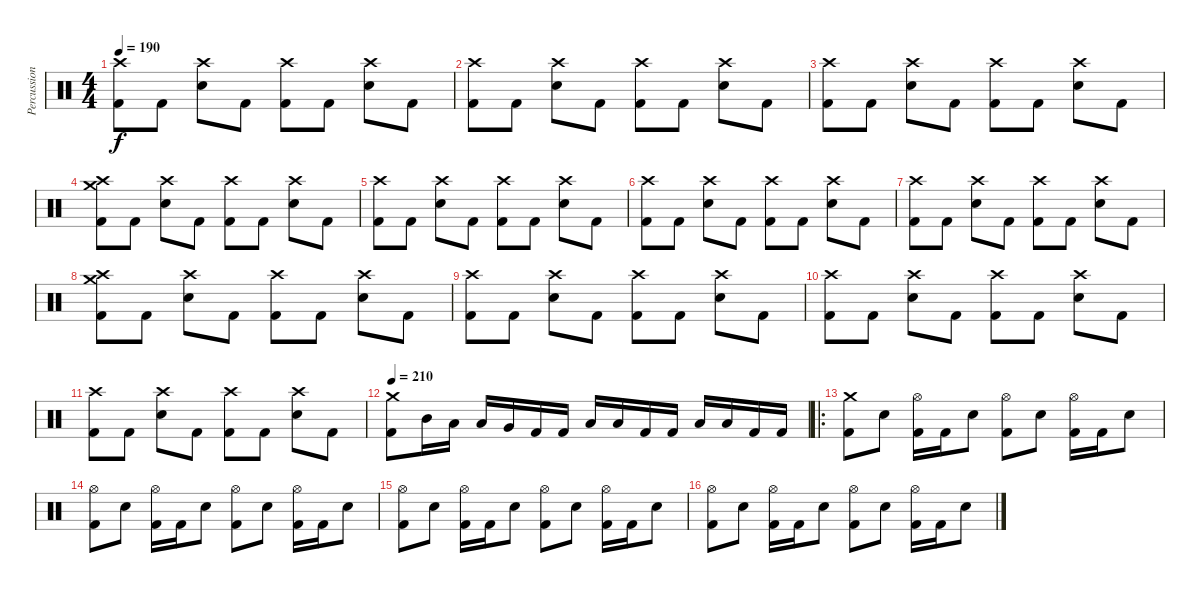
\track ("Percussion" "Percussion") {instrument percussion}
\staff {score}
\articulation defaults
\ts (4 4)
\tempo 190
\clef neutral
\ks c
("Crash high (hit)" "Kick (hit) 2").8{dy f} "Kick (hit) 2".8 ("Crash high (hit)" "Electric Snare (hit)").8 "Kick (hit) 2".8 ("Crash high (hit)" "Kick (hit) 2").8 "Kick (hit) 2".8 ("Crash high (hit)" "Electric Snare (hit)").8 "Kick (hit) 2".8 |
("Crash high (hit)" "Kick (hit) 2").8 "Kick (hit) 2".8 ("Crash high (hit)" "Electric Snare (hit)").8 "Kick (hit) 2".8 ("Crash high (hit)" "Kick (hit) 2").8 "Kick (hit) 2".8 ("Crash high (hit)" "Electric Snare (hit)").8 "Kick (hit) 2".8 |
("Crash high (hit)" "Kick (hit) 2").8 "Kick (hit) 2".8 ("Crash high (hit)" "Electric Snare (hit)").8 "Kick (hit) 2".8 ("Crash high (hit)" "Kick (hit) 2").8 "Kick (hit) 2".8 ("Crash high (hit)" "Electric Snare (hit)").8 "Kick (hit) 2".8 |
("Crash high (hit)" "Crash medium (hit)" "Kick (hit) 2").8 "Kick (hit) 2".8 ("Crash high (hit)" "Electric Snare (hit)").8 "Kick (hit) 2".8 ("Crash high (hit)" "Kick (hit) 2").8 "Kick (hit) 2".8 ("Crash high (hit)" "Electric Snare (hit)").8 "Kick (hit) 2".8 |
("Crash high (hit)" "Kick (hit) 2").8 "Kick (hit) 2".8 ("Crash high (hit)" "Electric Snare (hit)").8 "Kick (hit) 2".8 ("Crash high (hit)" "Kick (hit) 2").8 "Kick (hit) 2".8 ("Crash high (hit)" "Electric Snare (hit)").8 "Kick (hit) 2".8 |
("Crash high (hit)" "Kick (hit) 2").8 "Kick (hit) 2".8 ("Crash high (hit)" "Electric Snare (hit)").8 "Kick (hit) 2".8 ("Crash high (hit)" "Kick (hit) 2").8 "Kick (hit) 2".8 ("Crash high (hit)" "Electric Snare (hit)").8 "Kick (hit) 2".8 |
("Crash high (hit)" "Kick (hit) 2").8 "Kick (hit) 2".8 ("Crash high (hit)" "Electric Snare (hit)").8 "Kick (hit) 2".8 ("Crash high (hit)" "Kick (hit) 2").8 "Kick (hit) 2".8 ("Crash high (hit)" "Electric Snare (hit)").8 "Kick (hit) 2".8 |
("Crash high (hit)" "Crash medium (hit)" "Kick (hit) 2").8 "Kick (hit) 2".8 ("Crash high (hit)" "Electric Snare (hit)").8 "Kick (hit) 2".8 ("Crash high (hit)" "Kick (hit) 2").8 "Kick (hit) 2".8 ("Crash high (hit)" "Electric Snare (hit)").8 "Kick (hit) 2".8 |
("Crash high (hit)" "Kick (hit) 2").8 "Kick (hit) 2".8 ("Crash high (hit)" "Electric Snare (hit)").8 "Kick (hit) 2".8 ("Crash high (hit)" "Kick (hit) 2").8 "Kick (hit) 2".8 ("Crash high (hit)" "Electric Snare (hit)").8 "Kick (hit) 2".8 |
("Crash high (hit)" "Kick (hit) 2").8 "Kick (hit) 2".8 ("Crash high (hit)" "Electric Snare (hit)").8 "Kick (hit) 2".8 ("Crash high (hit)" "Kick (hit) 2").8 "Kick (hit) 2".8 ("Crash high (hit)" "Electric Snare (hit)").8 "Kick (hit) 2".8 |
("Crash high (hit)" "Kick (hit) 2").8 "Kick (hit) 2".8 ("Crash high (hit)" "Electric Snare (hit)").8 "Kick (hit) 2".8 ("Crash high (hit)" "Kick (hit) 2").8 "Kick (hit) 2".8 ("Crash high (hit)" "Electric Snare (hit)").8 "Kick (hit) 2".8 |
\tempo 210
("Crash medium (hit)" "Kick (hit) 2").8 "Mid Tom (hit)".16 "Low Tom (hit)".16 "Low Floor Tom (hit)".16 "Very Low Tom (hit)".16 "Kick (hit) 2".16 "Kick (hit) 2".16 "Low Tom (hit)".16 "Low Tom (hit)".16 "Kick (hit) 2".16 "Kick (hit) 2".16 "Low Floor Tom (hit)".16 "Low Floor Tom (hit)".16 "Kick (hit) 2".16 "Kick (hit) 2".16 |
\ro
("Crash medium (hit)" "Kick (hit) 2").8 "Electric Snare (hit)".8 ("Hi-Hat (open)" "Kick (hit) 2").16 "Kick (hit) 2".16 "Electric Snare (hit)".8 ("Hi-Hat (open)" "Kick (hit) 2").8 "Electric Snare (hit)".8 ("Hi-Hat (open)" "Kick (hit) 2").16 "Kick (hit) 2".16 "Electric Snare (hit)".8 |
("Hi-Hat (open)" "Kick (hit) 2").8 "Electric Snare (hit)".8 ("Hi-Hat (open)" "Kick (hit) 2").16 "Kick (hit) 2".16 "Electric Snare (hit)".8 ("Hi-Hat (open)" "Kick (hit) 2").8 "Electric Snare (hit)".8 ("Hi-Hat (open)" "Kick (hit) 2").16 "Kick (hit) 2".16 "Electric Snare (hit)".8 |
("Hi-Hat (open)" "Kick (hit) 2").8 "Electric Snare (hit)".8 ("Hi-Hat (open)" "Kick (hit) 2").16 "Kick (hit) 2".16 "Electric Snare (hit)".8 ("Hi-Hat (open)" "Kick (hit) 2").8 "Electric Snare (hit)".8 ("Hi-Hat (open)" "Kick (hit) 2").16 "Kick (hit) 2".16 "Electric Snare (hit)".8 |
("Hi-Hat (open)" "Kick (hit) 2").8 "Electric Snare (hit)".8 ("Hi-Hat (open)" "Kick (hit) 2").16 "Kick (hit) 2".16 "Electric Snare (hit)".8 ("Hi-Hat (open)" "Kick (hit) 2").8 "Electric Snare (hit)".8 ("Hi-Hat (open)" "Kick (hit) 2").16 "Kick (hit) 2".16 "Electric Snare (hit)".8
